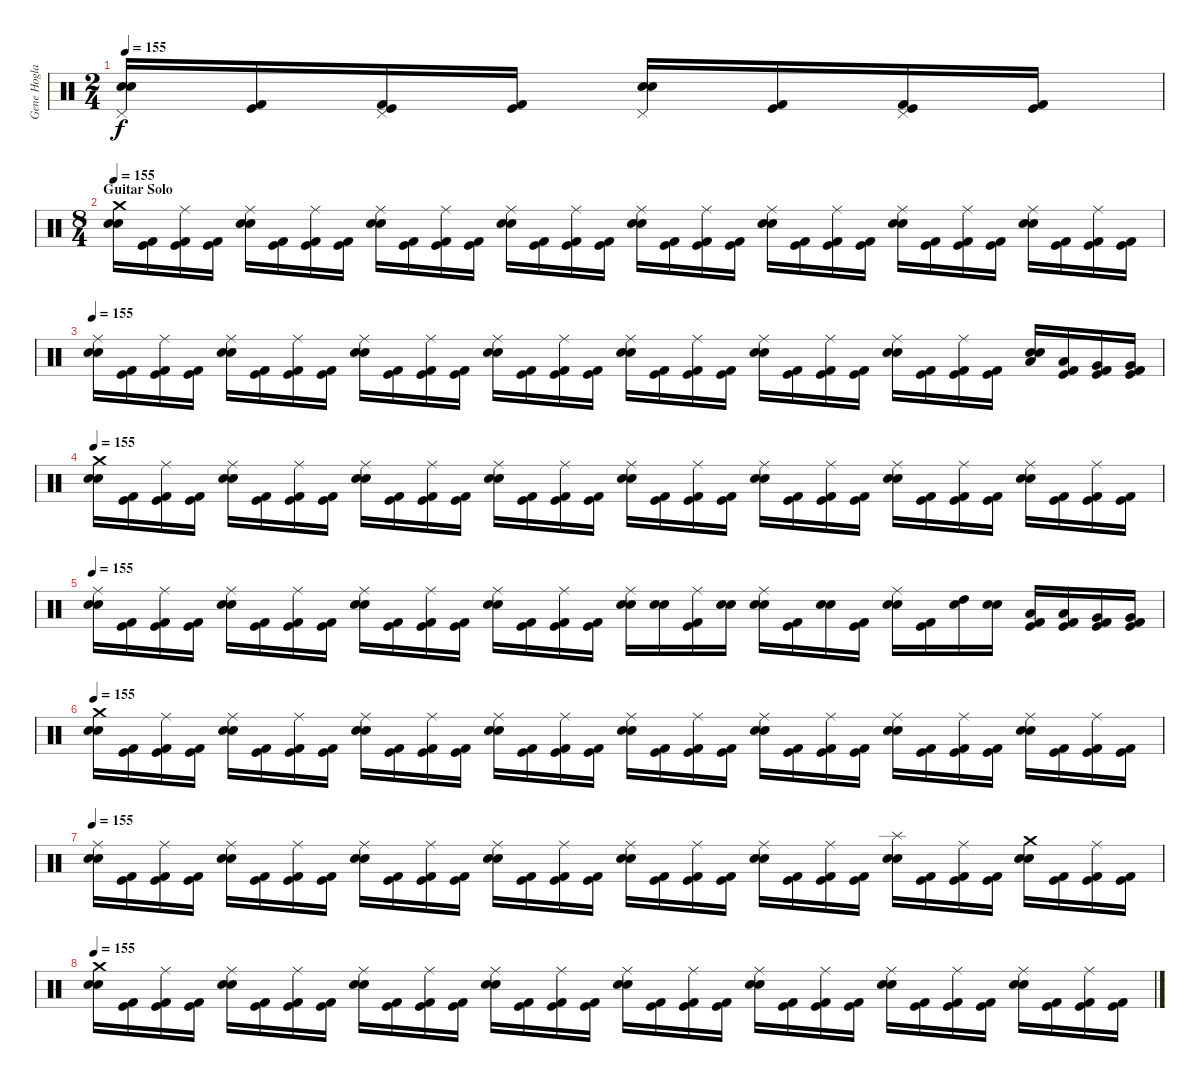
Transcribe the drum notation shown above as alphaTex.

\track ("Gene Hoglan" "Gene Hogla") {instrument percussion}
\staff {score}
\articulation defaults
\ts (2 4)
\tempo 155
\clef neutral
\ks c
("Pedal Hi-Hat (hit)" "Electric Snare (hit)" "Snare (hit) 2").16{dy f} ("Kick (hit) 2" "Kick (hit)").16 ("Pedal Hi-Hat (hit)" "Kick (hit) 2" "Kick (hit)").16 ("Kick (hit) 2" "Kick (hit)").16 ("Pedal Hi-Hat (hit)" "Electric Snare (hit)" "Snare (hit) 2").16 ("Kick (hit) 2" "Kick (hit)").16 ("Pedal Hi-Hat (hit)" "Kick (hit) 2" "Kick (hit)").16 ("Kick (hit) 2" "Kick (hit)").16 |
\ts (8 4)
\section ("" "Guitar Solo")
\tempo 155
("Crash medium (hit)" "Snare (hit) 2" "Electric Snare (hit)").16 ("Kick (hit) 2" "Kick (hit)").16 ("Ride (middle)" "Kick (hit) 2" "Kick (hit)").16 ("Kick (hit) 2" "Kick (hit)").16 ("Ride (middle)" "Snare (hit) 2" "Electric Snare (hit)").16 ("Kick (hit) 2" "Kick (hit)").16 ("Ride (middle)" "Kick (hit) 2" "Kick (hit)").16 ("Kick (hit) 2" "Kick (hit)").16 ("Ride (middle)" "Snare (hit) 2" "Electric Snare (hit)").16 ("Kick (hit) 2" "Kick (hit)").16 ("Ride (middle)" "Kick (hit) 2" "Kick (hit)").16 ("Kick (hit) 2" "Kick (hit)").16 ("Ride (middle)" "Snare (hit) 2" "Electric Snare (hit)").16 ("Kick (hit) 2" "Kick (hit)").16 ("Ride (middle)" "Kick (hit) 2" "Kick (hit)").16 ("Kick (hit) 2" "Kick (hit)").16 ("Ride (middle)" "Snare (hit) 2" "Electric Snare (hit)").16 ("Kick (hit) 2" "Kick (hit)").16 ("Ride (middle)" "Kick (hit) 2" "Kick (hit)").16 ("Kick (hit) 2" "Kick (hit)").16 ("Ride (middle)" "Snare (hit) 2" "Electric Snare (hit)").16 ("Kick (hit) 2" "Kick (hit)").16 ("Ride (middle)" "Kick (hit) 2" "Kick (hit)").16 ("Kick (hit) 2" "Kick (hit)").16 ("Ride (middle)" "Snare (hit) 2" "Electric Snare (hit)").16 ("Kick (hit) 2" "Kick (hit)").16 ("Ride (middle)" "Kick (hit) 2" "Kick (hit)").16 ("Kick (hit) 2" "Kick (hit)").16 ("Ride (middle)" "Snare (hit) 2" "Electric Snare (hit)").16 ("Kick (hit) 2" "Kick (hit)").16 ("Ride (middle)" "Kick (hit) 2" "Kick (hit)").16 ("Kick (hit) 2" "Kick (hit)").16 |
\tempo 155
("Ride (middle)" "Snare (hit) 2" "Electric Snare (hit)").16 ("Kick (hit) 2" "Kick (hit)").16 ("Ride (middle)" "Kick (hit) 2" "Kick (hit)").16 ("Kick (hit) 2" "Kick (hit)").16 ("Ride (middle)" "Snare (hit) 2" "Electric Snare (hit)").16 ("Kick (hit) 2" "Kick (hit)").16 ("Ride (middle)" "Kick (hit) 2" "Kick (hit)").16 ("Kick (hit) 2" "Kick (hit)").16 ("Ride (middle)" "Snare (hit) 2" "Electric Snare (hit)").16 ("Kick (hit) 2" "Kick (hit)").16 ("Ride (middle)" "Kick (hit) 2" "Kick (hit)").16 ("Kick (hit) 2" "Kick (hit)").16 ("Ride (middle)" "Snare (hit) 2" "Electric Snare (hit)").16 ("Kick (hit) 2" "Kick (hit)").16 ("Ride (middle)" "Kick (hit) 2" "Kick (hit)").16 ("Kick (hit) 2" "Kick (hit)").16 ("Ride (middle)" "Snare (hit) 2" "Electric Snare (hit)").16 ("Kick (hit) 2" "Kick (hit)").16 ("Ride (middle)" "Kick (hit) 2" "Kick (hit)").16 ("Kick (hit) 2" "Kick (hit)").16 ("Ride (middle)" "Snare (hit) 2" "Electric Snare (hit)").16 ("Kick (hit) 2" "Kick (hit)").16 ("Ride (middle)" "Kick (hit) 2" "Kick (hit)").16 ("Kick (hit) 2" "Kick (hit)").16 ("Ride (middle)" "Snare (hit) 2" "Electric Snare (hit)").16 ("Kick (hit) 2" "Kick (hit)").16 ("Ride (middle)" "Kick (hit) 2" "Kick (hit)").16 ("Kick (hit) 2" "Kick (hit)").16 ("Low Tom (hit)" "Snare (hit) 2" "Electric Snare (hit)").16 ("Low Tom (hit)" "Kick (hit) 2" "Kick (hit)").16 ("Very Low Tom (hit)" "Kick (hit) 2" "Kick (hit)").16 ("Very Low Tom (hit)" "Kick (hit) 2" "Kick (hit)").16 |
\tempo 155
("Crash medium (hit)" "Snare (hit) 2" "Electric Snare (hit)").16 ("Kick (hit) 2" "Kick (hit)").16 ("Ride (middle)" "Kick (hit) 2" "Kick (hit)").16 ("Kick (hit) 2" "Kick (hit)").16 ("Ride (middle)" "Snare (hit) 2" "Electric Snare (hit)").16 ("Kick (hit) 2" "Kick (hit)").16 ("Ride (middle)" "Kick (hit) 2" "Kick (hit)").16 ("Kick (hit) 2" "Kick (hit)").16 ("Ride (middle)" "Snare (hit) 2" "Electric Snare (hit)").16 ("Kick (hit) 2" "Kick (hit)").16 ("Ride (middle)" "Kick (hit) 2" "Kick (hit)").16 ("Kick (hit) 2" "Kick (hit)").16 ("Ride (middle)" "Snare (hit) 2" "Electric Snare (hit)").16 ("Kick (hit) 2" "Kick (hit)").16 ("Ride (middle)" "Kick (hit) 2" "Kick (hit)").16 ("Kick (hit) 2" "Kick (hit)").16 ("Ride (middle)" "Snare (hit) 2" "Electric Snare (hit)").16 ("Kick (hit) 2" "Kick (hit)").16 ("Ride (middle)" "Kick (hit) 2" "Kick (hit)").16 ("Kick (hit) 2" "Kick (hit)").16 ("Ride (middle)" "Snare (hit) 2" "Electric Snare (hit)").16 ("Kick (hit) 2" "Kick (hit)").16 ("Ride (middle)" "Kick (hit) 2" "Kick (hit)").16 ("Kick (hit) 2" "Kick (hit)").16 ("Ride (middle)" "Snare (hit) 2" "Electric Snare (hit)").16 ("Kick (hit) 2" "Kick (hit)").16 ("Ride (middle)" "Kick (hit) 2" "Kick (hit)").16 ("Kick (hit) 2" "Kick (hit)").16 ("Ride (middle)" "Snare (hit) 2" "Electric Snare (hit)").16 ("Kick (hit) 2" "Kick (hit)").16 ("Ride (middle)" "Kick (hit) 2" "Kick (hit)").16 ("Kick (hit) 2" "Kick (hit)").16 |
\tempo 155
("Ride (middle)" "Snare (hit) 2" "Electric Snare (hit)").16 ("Kick (hit) 2" "Kick (hit)").16 ("Ride (middle)" "Kick (hit) 2" "Kick (hit)").16 ("Kick (hit) 2" "Kick (hit)").16 ("Ride (middle)" "Snare (hit) 2" "Electric Snare (hit)").16 ("Kick (hit) 2" "Kick (hit)").16 ("Ride (middle)" "Kick (hit) 2" "Kick (hit)").16 ("Kick (hit) 2" "Kick (hit)").16 ("Ride (middle)" "Snare (hit) 2" "Electric Snare (hit)").16 ("Kick (hit) 2" "Kick (hit)").16 ("Ride (middle)" "Kick (hit) 2" "Kick (hit)").16 ("Kick (hit) 2" "Kick (hit)").16 ("Ride (middle)" "Snare (hit) 2" "Electric Snare (hit)").16 ("Kick (hit) 2" "Kick (hit)").16 ("Ride (middle)" "Kick (hit) 2" "Kick (hit)").16 ("Kick (hit) 2" "Kick (hit)").16 ("Ride (middle)" "Snare (hit) 2" "Electric Snare (hit)").16 ("Snare (hit) 2" "Electric Snare (hit)").16 ("Ride (middle)" "Kick (hit) 2" "Kick (hit)").16 ("Snare (hit) 2" "Electric Snare (hit)").16 ("Ride (middle)" "Snare (hit) 2" "Electric Snare (hit)").16 ("Kick (hit) 2" "Kick (hit)").16 ("Snare (hit) 2" "Electric Snare (hit)").16 ("Kick (hit)" "Kick (hit) 2").16 ("Ride (middle)" "Snare (hit) 2" "Electric Snare (hit)").16 ("Kick (hit) 2" "Kick (hit)").16 ("High Tom (hit)" "Electric Snare (hit)").16 ("Snare (hit) 2" "Electric Snare (hit)").16 ("Low Tom (hit)" "Kick (hit)" "Kick (hit) 2").16 ("Low Tom (hit)" "Kick (hit) 2" "Kick (hit)").16 ("Very Low Tom (hit)" "Kick (hit) 2" "Kick (hit)").16 ("Very Low Tom (hit)" "Kick (hit) 2" "Kick (hit)").16 |
\tempo 155
("Crash medium (hit)" "Snare (hit) 2" "Electric Snare (hit)").16 ("Kick (hit) 2" "Kick (hit)").16 ("Ride (middle)" "Kick (hit) 2" "Kick (hit)").16 ("Kick (hit) 2" "Kick (hit)").16 ("Ride (middle)" "Snare (hit) 2" "Electric Snare (hit)").16 ("Kick (hit) 2" "Kick (hit)").16 ("Ride (middle)" "Kick (hit) 2" "Kick (hit)").16 ("Kick (hit) 2" "Kick (hit)").16 ("Ride (middle)" "Snare (hit) 2" "Electric Snare (hit)").16 ("Kick (hit) 2" "Kick (hit)").16 ("Ride (middle)" "Kick (hit) 2" "Kick (hit)").16 ("Kick (hit) 2" "Kick (hit)").16 ("Ride (middle)" "Snare (hit) 2" "Electric Snare (hit)").16 ("Kick (hit) 2" "Kick (hit)").16 ("Ride (middle)" "Kick (hit) 2" "Kick (hit)").16 ("Kick (hit) 2" "Kick (hit)").16 ("Ride (middle)" "Snare (hit) 2" "Electric Snare (hit)").16 ("Kick (hit) 2" "Kick (hit)").16 ("Ride (middle)" "Kick (hit) 2" "Kick (hit)").16 ("Kick (hit) 2" "Kick (hit)").16 ("Ride (middle)" "Snare (hit) 2" "Electric Snare (hit)").16 ("Kick (hit) 2" "Kick (hit)").16 ("Ride (middle)" "Kick (hit) 2" "Kick (hit)").16 ("Kick (hit) 2" "Kick (hit)").16 ("Ride (middle)" "Snare (hit) 2" "Electric Snare (hit)").16 ("Kick (hit) 2" "Kick (hit)").16 ("Ride (middle)" "Kick (hit) 2" "Kick (hit)").16 ("Kick (hit) 2" "Kick (hit)").16 ("Ride (middle)" "Snare (hit) 2" "Electric Snare (hit)").16 ("Kick (hit) 2" "Kick (hit)").16 ("Ride (middle)" "Kick (hit) 2" "Kick (hit)").16 ("Kick (hit) 2" "Kick (hit)").16 |
\tempo 155
("Ride (middle)" "Snare (hit) 2" "Electric Snare (hit)").16 ("Kick (hit) 2" "Kick (hit)").16 ("Ride (middle)" "Kick (hit) 2" "Kick (hit)").16 ("Kick (hit) 2" "Kick (hit)").16 ("Ride (middle)" "Snare (hit) 2" "Electric Snare (hit)").16 ("Kick (hit) 2" "Kick (hit)").16 ("Ride (middle)" "Kick (hit) 2" "Kick (hit)").16 ("Kick (hit) 2" "Kick (hit)").16 ("Ride (middle)" "Snare (hit) 2" "Electric Snare (hit)").16 ("Kick (hit) 2" "Kick (hit)").16 ("Ride (middle)" "Kick (hit) 2" "Kick (hit)").16 ("Kick (hit) 2" "Kick (hit)").16 ("Ride (middle)" "Snare (hit) 2" "Electric Snare (hit)").16 ("Kick (hit) 2" "Kick (hit)").16 ("Ride (middle)" "Kick (hit) 2" "Kick (hit)").16 ("Kick (hit) 2" "Kick (hit)").16 ("Ride (middle)" "Snare (hit) 2" "Electric Snare (hit)").16 ("Kick (hit) 2" "Kick (hit)").16 ("Ride (middle)" "Kick (hit) 2" "Kick (hit)").16 ("Kick (hit) 2" "Kick (hit)").16 ("Ride (middle)" "Snare (hit) 2" "Electric Snare (hit)").16 ("Kick (hit) 2" "Kick (hit)").16 ("Ride (middle)" "Kick (hit) 2" "Kick (hit)").16 ("Kick (hit) 2" "Kick (hit)").16 ("Splash (hit)" "Snare (hit) 2" "Electric Snare (hit)").16 ("Kick (hit) 2" "Kick (hit)").16 ("Ride (middle)" "Kick (hit) 2" "Kick (hit)").16 ("Kick (hit) 2" "Kick (hit)").16 ("Crash medium (hit)" "Snare (hit) 2" "Electric Snare (hit)").16 ("Kick (hit) 2" "Kick (hit)").16 ("Ride (middle)" "Kick (hit) 2" "Kick (hit)").16 ("Kick (hit) 2" "Kick (hit)").16 |
\tempo 155
("Crash medium (hit)" "Snare (hit) 2" "Electric Snare (hit)").16 ("Kick (hit) 2" "Kick (hit)").16 ("Ride (middle)" "Kick (hit) 2" "Kick (hit)").16 ("Kick (hit) 2" "Kick (hit)").16 ("Ride (middle)" "Snare (hit) 2" "Electric Snare (hit)").16 ("Kick (hit) 2" "Kick (hit)").16 ("Ride (middle)" "Kick (hit) 2" "Kick (hit)").16 ("Kick (hit) 2" "Kick (hit)").16 ("Ride (middle)" "Snare (hit) 2" "Electric Snare (hit)").16 ("Kick (hit) 2" "Kick (hit)").16 ("Ride (middle)" "Kick (hit) 2" "Kick (hit)").16 ("Kick (hit) 2" "Kick (hit)").16 ("Ride (middle)" "Snare (hit) 2" "Electric Snare (hit)").16 ("Kick (hit) 2" "Kick (hit)").16 ("Ride (middle)" "Kick (hit) 2" "Kick (hit)").16 ("Kick (hit) 2" "Kick (hit)").16 ("Ride (middle)" "Snare (hit) 2" "Electric Snare (hit)").16 ("Kick (hit) 2" "Kick (hit)").16 ("Ride (middle)" "Kick (hit) 2" "Kick (hit)").16 ("Kick (hit) 2" "Kick (hit)").16 ("Ride (middle)" "Snare (hit) 2" "Electric Snare (hit)").16 ("Kick (hit) 2" "Kick (hit)").16 ("Ride (middle)" "Kick (hit) 2" "Kick (hit)").16 ("Kick (hit) 2" "Kick (hit)").16 ("Ride (middle)" "Snare (hit) 2" "Electric Snare (hit)").16 ("Kick (hit) 2" "Kick (hit)").16 ("Ride (middle)" "Kick (hit) 2" "Kick (hit)").16 ("Kick (hit) 2" "Kick (hit)").16 ("Ride (middle)" "Snare (hit) 2" "Electric Snare (hit)").16 ("Kick (hit) 2" "Kick (hit)").16 ("Ride (middle)" "Kick (hit) 2" "Kick (hit)").16 ("Kick (hit) 2" "Kick (hit)").16
